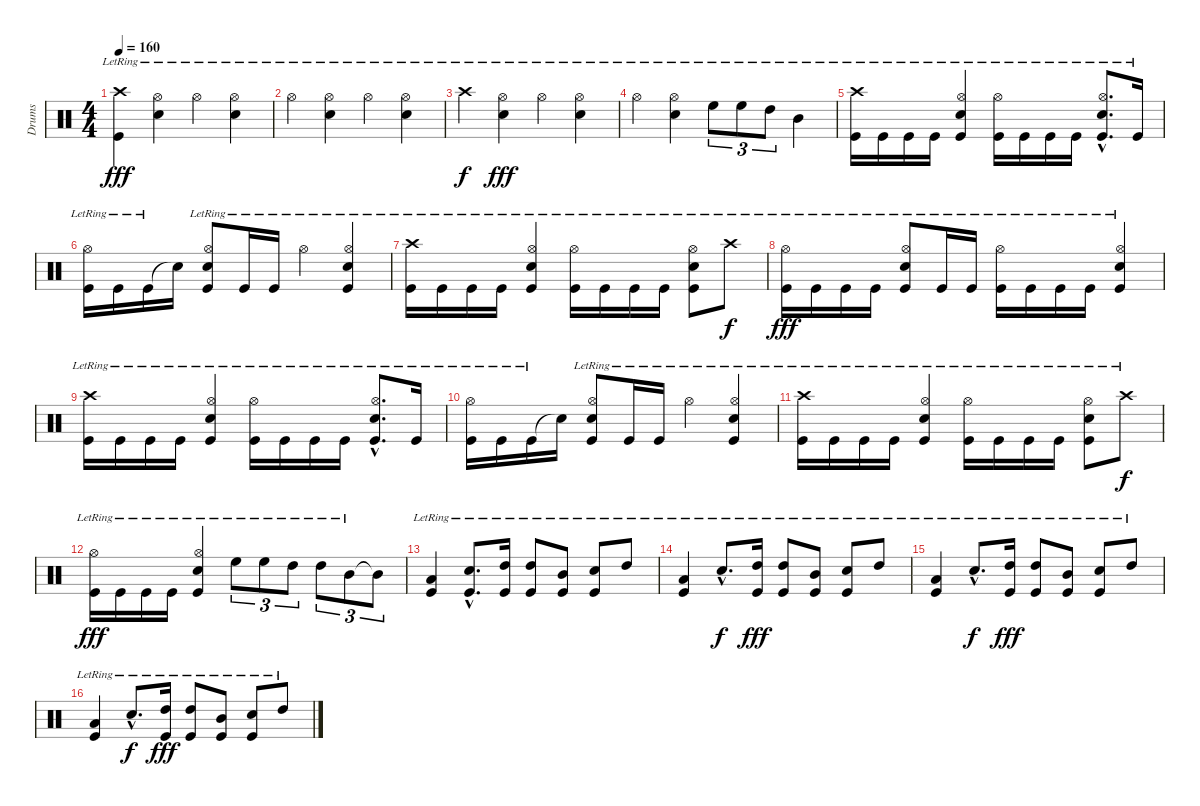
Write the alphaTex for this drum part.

\track ("Drums" "Drums") {instrument percussion}
\staff {score}
\articulation defaults
\ts (4 4)
\tempo 160
\clef neutral
\ks c
("Crash high (hit)"{lr} "Kick (hit)"{lr}).4{dy fff} ("Hi-Hat (open)"{lr} "Snare (hit) 2"{lr}).4 "Hi-Hat (open)"{lr}.4 ("Hi-Hat (open)"{lr} "Snare (hit) 2"{lr}).4 |
"Hi-Hat (open)"{lr}.4 ("Hi-Hat (open)"{lr} "Snare (hit) 2"{lr}).4 "Hi-Hat (open)"{lr}.4 ("Hi-Hat (open)"{lr} "Snare (hit) 2"{lr}).4 |
"Crash high (hit)"{lr}.4{dy f} ("Hi-Hat (open)"{lr} "Snare (hit) 2"{lr}).4{dy fff} "Hi-Hat (open)"{lr}.4 ("Hi-Hat (open)"{lr} "Snare (hit) 2"{lr}).4 |
"Hi-Hat (open)"{lr}.4 ("Hi-Hat (open)"{lr} "Snare (hit) 2"{lr}).4 "High Floor Tom (hit)"{lr}.8{tu (3 2)} "High Floor Tom (hit)"{lr}.8{tu (3 2)} "High Tom (hit)"{lr}.8{tu (3 2)} "Mid Tom (hit)"{lr}.4 |
("Crash high (hit)"{lr} "Kick (hit)"{lr}).16 "Kick (hit)"{lr}.16 "Kick (hit)"{lr}.16 "Kick (hit)"{lr}.16 ("Hi-Hat (open)"{lr} "Snare (hit) 2"{lr} "Kick (hit)"{lr}).4 ("Hi-Hat (open)"{lr} "Kick (hit)"{lr}).16 "Kick (hit)"{lr}.16 "Kick (hit)"{lr}.16 "Kick (hit)"{lr}.16 ("Hi-Hat (open)"{hac lr} "Snare (hit) 2"{hac lr} "Kick (hit)"{hac lr}).8{d} "Kick (hit)"{lr}.16 |
("Hi-Hat (open)"{lr} "Kick (hit)"{lr}).16 "Kick (hit)"{lr}.16 "Kick (hit)"{lr}.16 "Snare (hit)"{t}.16 ("Hi-Hat (open)"{lr} "Snare (hit) 2"{lr} "Kick (hit)"{lr}).8 "Kick (hit)"{lr}.16 "Kick (hit)"{lr}.16 "Hi-Hat (open)"{lr}.4 ("Hi-Hat (open)"{lr} "Snare (hit) 2"{lr} "Kick (hit)"{lr}).4 |
("Crash high (hit)"{lr} "Kick (hit)"{lr}).16 "Kick (hit)"{lr}.16 "Kick (hit)"{lr}.16 "Kick (hit)"{lr}.16 ("Hi-Hat (open)"{lr} "Snare (hit) 2"{lr} "Kick (hit)"{lr}).4 ("Hi-Hat (open)"{lr} "Kick (hit)"{lr}).16 "Kick (hit)"{lr}.16 "Kick (hit)"{lr}.16 "Kick (hit)"{lr}.16 ("Hi-Hat (open)"{lr} "Snare (hit) 2"{lr} "Kick (hit)"{lr}).8 "Crash high (hit)"{lr}.8{dy f} |
("Hi-Hat (open)"{lr} "Kick (hit)"{lr}).16{dy fff} "Kick (hit)"{lr}.16 "Kick (hit)"{lr}.16 "Kick (hit)"{lr}.16 ("Hi-Hat (open)"{lr} "Snare (hit) 2"{lr} "Kick (hit)"{lr}).8 "Kick (hit)"{lr}.16 "Kick (hit)"{lr}.16 ("Hi-Hat (open)"{lr} "Kick (hit)"{lr}).16 "Kick (hit)"{lr}.16 "Kick (hit)"{lr}.16 "Kick (hit)"{lr}.16 ("Hi-Hat (open)"{lr} "Snare (hit) 2"{lr} "Kick (hit)"{lr}).4 |
("Crash high (hit)"{lr} "Kick (hit)"{lr}).16 "Kick (hit)"{lr}.16 "Kick (hit)"{lr}.16 "Kick (hit)"{lr}.16 ("Hi-Hat (open)"{lr} "Snare (hit) 2"{lr} "Kick (hit)"{lr}).4 ("Hi-Hat (open)"{lr} "Kick (hit)"{lr}).16 "Kick (hit)"{lr}.16 "Kick (hit)"{lr}.16 "Kick (hit)"{lr}.16 ("Hi-Hat (open)"{hac lr} "Snare (hit) 2"{hac lr} "Kick (hit)"{hac lr}).8{d} "Kick (hit)"{lr}.16 |
("Hi-Hat (open)"{lr} "Kick (hit)"{lr}).16 "Kick (hit)"{lr}.16 "Kick (hit)"{lr}.16 "Snare (hit)"{t}.16 ("Hi-Hat (open)"{lr} "Snare (hit) 2"{lr} "Kick (hit)"{lr}).8 "Kick (hit)"{lr}.16 "Kick (hit)"{lr}.16 "Hi-Hat (open)"{lr}.4 ("Hi-Hat (open)"{lr} "Snare (hit) 2"{lr} "Kick (hit)"{lr}).4 |
("Crash high (hit)"{lr} "Kick (hit)"{lr}).16 "Kick (hit)"{lr}.16 "Kick (hit)"{lr}.16 "Kick (hit)"{lr}.16 ("Hi-Hat (open)"{lr} "Snare (hit) 2"{lr} "Kick (hit)"{lr}).4 ("Hi-Hat (open)"{lr} "Kick (hit)"{lr}).16 "Kick (hit)"{lr}.16 "Kick (hit)"{lr}.16 "Kick (hit)"{lr}.16 ("Hi-Hat (open)"{lr} "Snare (hit) 2"{lr} "Kick (hit)"{lr}).8 "Crash high (hit)"{lr}.8{dy f} |
("Hi-Hat (open)"{lr} "Kick (hit)"{lr}).16{dy fff} "Kick (hit)"{lr}.16 "Kick (hit)"{lr}.16 "Kick (hit)"{lr}.16 ("Hi-Hat (open)"{lr} "Snare (hit) 2"{lr} "Kick (hit)"{lr}).4 "High Floor Tom (hit)"{lr}.8{tu (3 2)} "High Floor Tom (hit)"{lr}.8{tu (3 2)} "High Tom (hit)"{lr}.8{tu (3 2)} "High Tom (hit)"{lr}.8{tu (3 2)} "Mid Tom (hit)"{lr}.8{tu (3 2)} "Mid Tom (hit)"{t}.8{tu (3 2)} |
("Low Floor Tom (hit)"{lr} "Kick (hit)"{lr}).4 ("Snare (hit) 2"{hac lr} "Kick (hit)"{hac lr}).8{d} ("High Tom (hit)"{lr} "Kick (hit)"{lr}).16 ("High Tom (hit)"{lr} "Kick (hit)"{lr}).8 ("Mid Tom (hit)"{lr} "Kick (hit)"{lr}).8 ("Snare (hit) 2"{lr} "Kick (hit)"{lr}).8 "High Tom (hit)"{lr}.8 |
("Low Floor Tom (hit)"{lr} "Kick (hit)"{lr}).4 "Snare (hit) 2"{hac lr}.8{d dy f} ("High Tom (hit)"{lr} "Kick (hit)"{lr}).16{dy fff} ("High Tom (hit)"{lr} "Kick (hit)"{lr}).8 ("Mid Tom (hit)"{lr} "Kick (hit)"{lr}).8 ("Snare (hit) 2"{lr} "Kick (hit)"{lr}).8 "High Tom (hit)"{lr}.8 |
("Low Floor Tom (hit)"{lr} "Kick (hit)"{lr}).4 "Snare (hit) 2"{hac lr}.8{d dy f} ("High Tom (hit)"{lr} "Kick (hit)"{lr}).16{dy fff} ("High Tom (hit)"{lr} "Kick (hit)"{lr}).8 ("Mid Tom (hit)"{lr} "Kick (hit)"{lr}).8 ("Snare (hit) 2"{lr} "Kick (hit)"{lr}).8 "High Tom (hit)"{lr}.8 |
("Low Floor Tom (hit)"{lr} "Kick (hit)"{lr}).4 "Snare (hit) 2"{hac lr}.8{d dy f} ("High Tom (hit)"{lr} "Kick (hit)"{lr}).16{dy fff} ("High Tom (hit)"{lr} "Kick (hit)"{lr}).8 ("Mid Tom (hit)"{lr} "Kick (hit)"{lr}).8 ("Snare (hit) 2"{lr} "Kick (hit)"{lr}).8 "High Tom (hit)"{lr}.8
